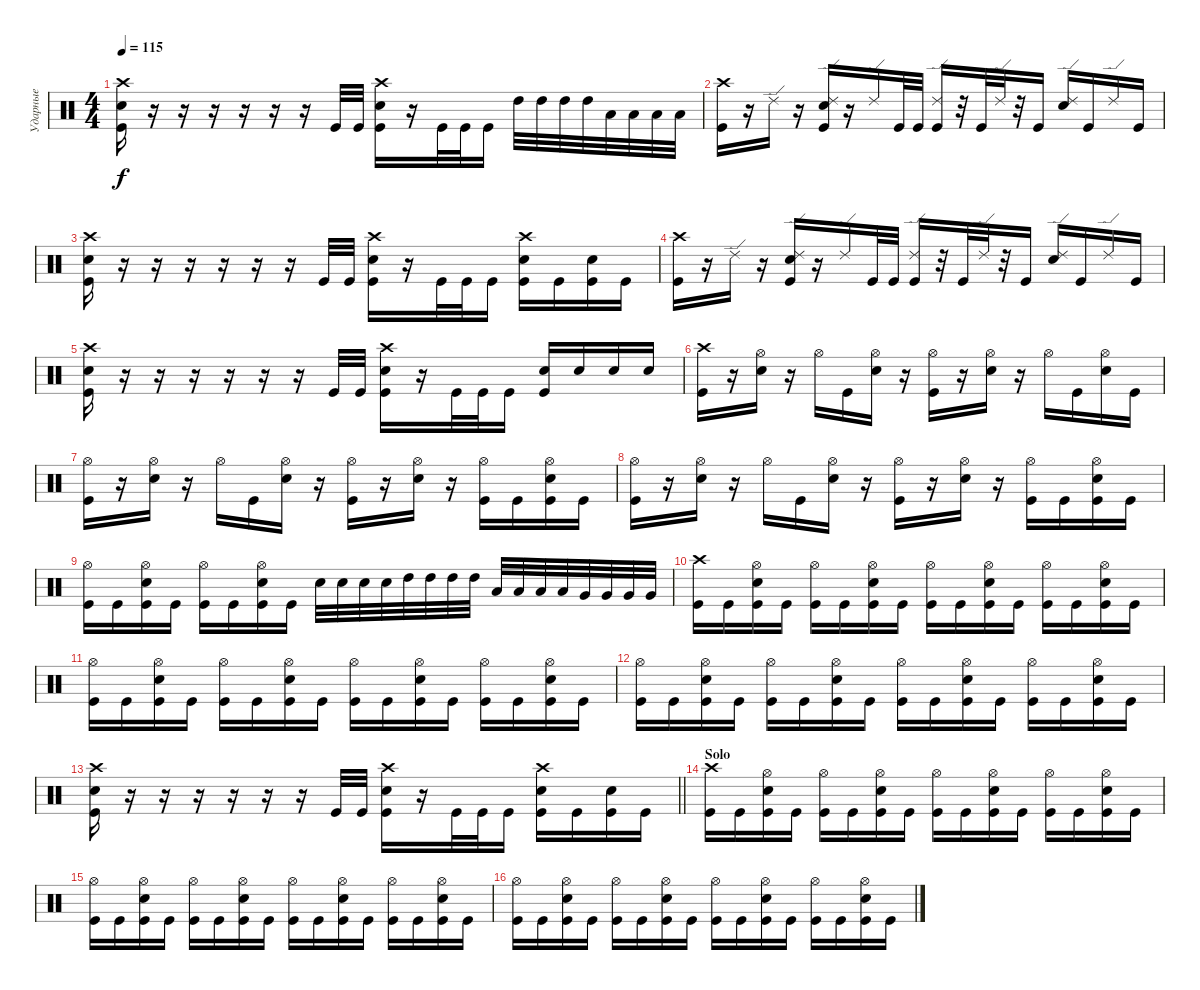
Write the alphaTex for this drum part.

\track ("Ударные" "Ударные") {instrument percussion}
\staff {score}
\articulation defaults
\ts (4 4)
\tempo 115
\clef neutral
\ks c
("Crash high (hit)" "Snare (hit) 2" "Kick (hit)").16{dy f} r.16 r.16 r.16 r.16 r.16 r.16 "Kick (hit)".32 "Kick (hit)".32 ("Crash high (hit)" "Snare (hit) 2" "Kick (hit)").16 r.16 "Kick (hit)".32 "Kick (hit)".32 "Kick (hit)".16 "High Tom (hit)".32 "High Tom (hit)".32 "High Tom (hit)".32 "High Tom (hit)".32 "Low Tom (hit)".32 "Low Tom (hit)".32 "Low Tom (hit)".32 "Low Tom (hit)".32 |
("Crash high (hit)" "Kick (hit)").16 r.16 "Ride (edge) 2".16 r.16 ("Ride (edge) 2" "Snare (hit) 2" "Kick (hit)").16 r.16 "Ride (edge) 2".16 "Kick (hit)".32 "Kick (hit)".32 ("Ride (edge) 2" "Kick (hit)").16 r.32 "Kick (hit)".32 "Ride (edge) 2".32 r.32 "Kick (hit)".16 ("Ride (edge) 2" "Snare (hit) 2").16 "Kick (hit)".16 "Ride (edge) 2".16 "Kick (hit)".16 |
("Crash high (hit)" "Snare (hit) 2" "Kick (hit)").16 r.16 r.16 r.16 r.16 r.16 r.16 "Kick (hit)".32 "Kick (hit)".32 ("Crash high (hit)" "Snare (hit) 2" "Kick (hit)").16 r.16 "Kick (hit)".32 "Kick (hit)".32 "Kick (hit)".16 ("Crash high (hit)" "Snare (hit) 2" "Kick (hit)").16 "Kick (hit)".16 ("Snare (hit) 2" "Kick (hit)").16 "Kick (hit)".16 |
("Crash high (hit)" "Kick (hit)").16 r.16 "Ride (edge) 2".16 r.16 ("Ride (edge) 2" "Snare (hit) 2" "Kick (hit)").16 r.16 "Ride (edge) 2".16 "Kick (hit)".32 "Kick (hit)".32 ("Ride (edge) 2" "Kick (hit)").16 r.32 "Kick (hit)".32 "Ride (edge) 2".32 r.32 "Kick (hit)".16 ("Ride (edge) 2" "Snare (hit) 2").16 "Kick (hit)".16 "Ride (edge) 2".16 "Kick (hit)".16 |
("Crash high (hit)" "Snare (hit) 2" "Kick (hit)").16 r.16 r.16 r.16 r.16 r.16 r.16 "Kick (hit)".32 "Kick (hit)".32 ("Crash high (hit)" "Snare (hit) 2" "Kick (hit)").16 r.16 "Kick (hit)".32 "Kick (hit)".32 "Kick (hit)".16 ("Snare (hit) 2" "Kick (hit)").16 "Snare (hit) 2".16 "Snare (hit) 2".16 "Snare (hit) 2".16 |
("Crash high (hit)" "Kick (hit)").16 r.16 ("Hi-Hat (open)" "Snare (hit) 2").16 r.16 "Hi-Hat (open)".16 "Kick (hit)".16 ("Hi-Hat (open)" "Snare (hit) 2").16 r.16 ("Hi-Hat (open)" "Kick (hit)").16 r.16 ("Hi-Hat (open)" "Snare (hit) 2").16 r.16 "Hi-Hat (open)".16 "Kick (hit)".16 ("Hi-Hat (open)" "Snare (hit) 2").16 "Kick (hit)".16 |
("Hi-Hat (open)" "Kick (hit)").16 r.16 ("Hi-Hat (open)" "Snare (hit) 2").16 r.16 "Hi-Hat (open)".16 "Kick (hit)".16 ("Hi-Hat (open)" "Snare (hit) 2").16 r.16 ("Hi-Hat (open)" "Kick (hit)").16 r.16 ("Hi-Hat (open)" "Snare (hit) 2").16 r.16 ("Hi-Hat (open)" "Kick (hit)").16 "Kick (hit)".16 ("Hi-Hat (open)" "Snare (hit) 2" "Kick (hit)").16 "Kick (hit)".16 |
("Hi-Hat (open)" "Kick (hit)").16 r.16 ("Hi-Hat (open)" "Snare (hit) 2").16 r.16 "Hi-Hat (open)".16 "Kick (hit)".16 ("Hi-Hat (open)" "Snare (hit) 2").16 r.16 ("Hi-Hat (open)" "Kick (hit)").16 r.16 ("Hi-Hat (open)" "Snare (hit) 2").16 r.16 ("Hi-Hat (open)" "Kick (hit)").16 "Kick (hit)".16 ("Hi-Hat (open)" "Snare (hit) 2" "Kick (hit)").16 "Kick (hit)".16 |
("Hi-Hat (open)" "Kick (hit)").16 "Kick (hit)".16 ("Hi-Hat (open)" "Snare (hit) 2" "Kick (hit)").16 "Kick (hit)".16 ("Hi-Hat (open)" "Kick (hit)").16 "Kick (hit)".16 ("Hi-Hat (open)" "Snare (hit) 2" "Kick (hit)").16 "Kick (hit)".16 "Snare (hit) 2".32 "Snare (hit) 2".32 "Snare (hit) 2".32 "Snare (hit) 2".32 "High Tom (hit)".32 "High Tom (hit)".32 "High Tom (hit)".32 "High Tom (hit)".32 "Low Tom (hit)".32 "Low Tom (hit)".32 "Low Tom (hit)".32 "Low Tom (hit)".32 "Very Low Tom (hit)".32 "Very Low Tom (hit)".32 "Very Low Tom (hit)".32 "Very Low Tom (hit)".32 |
("Crash high (hit)" "Kick (hit)").16 "Kick (hit)".16 ("Hi-Hat (open)" "Snare (hit) 2" "Kick (hit)").16 "Kick (hit)".16 ("Hi-Hat (open)" "Kick (hit)").16 "Kick (hit)".16 ("Hi-Hat (open)" "Snare (hit) 2" "Kick (hit)").16 "Kick (hit)".16 ("Hi-Hat (open)" "Kick (hit)").16 "Kick (hit)".16 ("Hi-Hat (open)" "Snare (hit) 2" "Kick (hit)").16 "Kick (hit)".16 ("Hi-Hat (open)" "Kick (hit)").16 "Kick (hit)".16 ("Hi-Hat (open)" "Snare (hit) 2" "Kick (hit)").16 "Kick (hit)".16 |
("Hi-Hat (open)" "Kick (hit)").16 "Kick (hit)".16 ("Hi-Hat (open)" "Snare (hit) 2" "Kick (hit)").16 "Kick (hit)".16 ("Hi-Hat (open)" "Kick (hit)").16 "Kick (hit)".16 ("Hi-Hat (open)" "Snare (hit) 2" "Kick (hit)").16 "Kick (hit)".16 ("Hi-Hat (open)" "Kick (hit)").16 "Kick (hit)".16 ("Hi-Hat (open)" "Snare (hit) 2" "Kick (hit)").16 "Kick (hit)".16 ("Hi-Hat (open)" "Kick (hit)").16 "Kick (hit)".16 ("Hi-Hat (open)" "Snare (hit) 2" "Kick (hit)").16 "Kick (hit)".16 |
("Hi-Hat (open)" "Kick (hit)").16 "Kick (hit)".16 ("Hi-Hat (open)" "Snare (hit) 2" "Kick (hit)").16 "Kick (hit)".16 ("Hi-Hat (open)" "Kick (hit)").16 "Kick (hit)".16 ("Hi-Hat (open)" "Snare (hit) 2" "Kick (hit)").16 "Kick (hit)".16 ("Hi-Hat (open)" "Kick (hit)").16 "Kick (hit)".16 ("Hi-Hat (open)" "Snare (hit) 2" "Kick (hit)").16 "Kick (hit)".16 ("Hi-Hat (open)" "Kick (hit)").16 "Kick (hit)".16 ("Hi-Hat (open)" "Snare (hit) 2" "Kick (hit)").16 "Kick (hit)".16 |
\barLineRight lightlight
("Crash high (hit)" "Snare (hit) 2" "Kick (hit)").16 r.16 r.16 r.16 r.16 r.16 r.16 "Kick (hit)".32 "Kick (hit)".32 ("Crash high (hit)" "Snare (hit) 2" "Kick (hit)").16 r.16 "Kick (hit)".32 "Kick (hit)".32 "Kick (hit)".16 ("Crash high (hit)" "Snare (hit) 2" "Kick (hit)").16 "Kick (hit)".16 ("Snare (hit) 2" "Kick (hit)").16 "Kick (hit)".16 |
\section ("" "Solo")
("Crash high (hit)" "Kick (hit)").16 "Kick (hit)".16 ("Hi-Hat (open)" "Snare (hit) 2" "Kick (hit)").16 "Kick (hit)".16 ("Hi-Hat (open)" "Kick (hit)").16 "Kick (hit)".16 ("Hi-Hat (open)" "Snare (hit) 2" "Kick (hit)").16 "Kick (hit)".16 ("Hi-Hat (open)" "Kick (hit)").16 "Kick (hit)".16 ("Hi-Hat (open)" "Snare (hit) 2" "Kick (hit)").16 "Kick (hit)".16 ("Hi-Hat (open)" "Kick (hit)").16 "Kick (hit)".16 ("Hi-Hat (open)" "Snare (hit) 2" "Kick (hit)").16 "Kick (hit)".16 |
("Hi-Hat (open)" "Kick (hit)").16 "Kick (hit)".16 ("Hi-Hat (open)" "Snare (hit) 2" "Kick (hit)").16 "Kick (hit)".16 ("Hi-Hat (open)" "Kick (hit)").16 "Kick (hit)".16 ("Hi-Hat (open)" "Snare (hit) 2" "Kick (hit)").16 "Kick (hit)".16 ("Hi-Hat (open)" "Kick (hit)").16 "Kick (hit)".16 ("Hi-Hat (open)" "Snare (hit) 2" "Kick (hit)").16 "Kick (hit)".16 ("Hi-Hat (open)" "Kick (hit)").16 "Kick (hit)".16 ("Hi-Hat (open)" "Snare (hit) 2" "Kick (hit)").16 "Kick (hit)".16 |
("Hi-Hat (open)" "Kick (hit)").16 "Kick (hit)".16 ("Hi-Hat (open)" "Snare (hit) 2" "Kick (hit)").16 "Kick (hit)".16 ("Hi-Hat (open)" "Kick (hit)").16 "Kick (hit)".16 ("Hi-Hat (open)" "Snare (hit) 2" "Kick (hit)").16 "Kick (hit)".16 ("Hi-Hat (open)" "Kick (hit)").16 "Kick (hit)".16 ("Hi-Hat (open)" "Snare (hit) 2" "Kick (hit)").16 "Kick (hit)".16 ("Hi-Hat (open)" "Kick (hit)").16 "Kick (hit)".16 ("Hi-Hat (open)" "Snare (hit) 2" "Kick (hit)").16 "Kick (hit)".16
